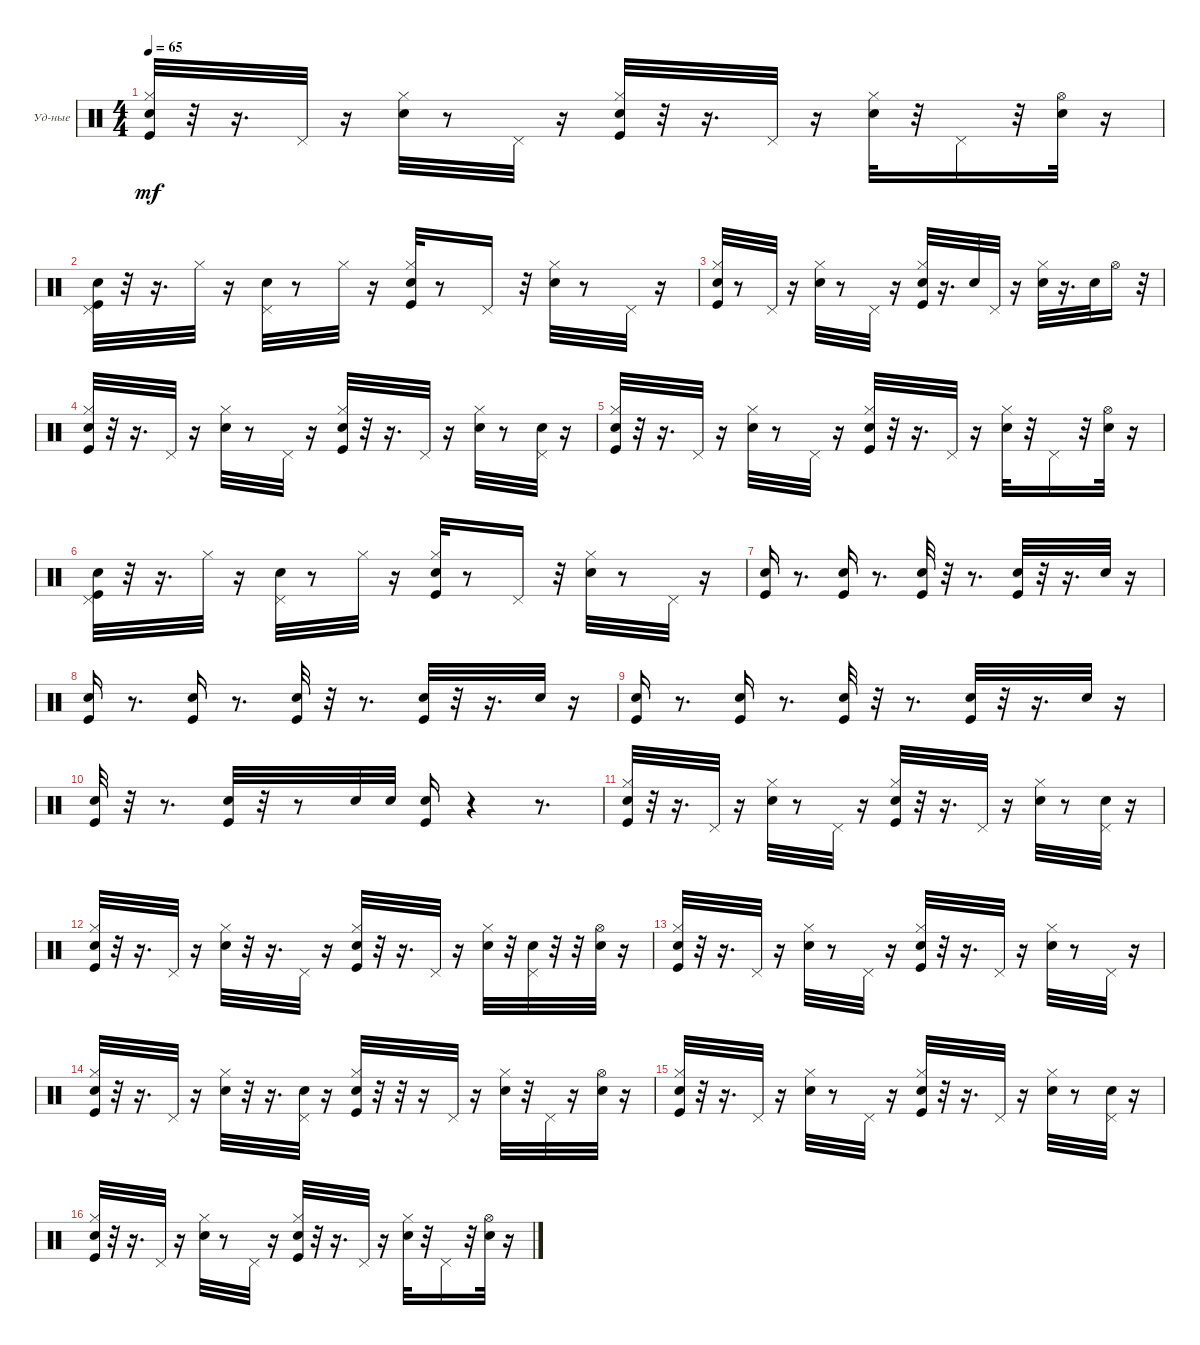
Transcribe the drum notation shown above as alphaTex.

\bracketExtendMode groupsimilarinstruments
\firstSystemTrackNameOrientation horizontal
\otherSystemsTrackNameOrientation horizontal
\track ("Ударные" "Уд-ные") {instrument percussion}
\staff {score}
\articulation defaults
\ts (4 4)
\tempo 65
\clef neutral
\ks c
("Kick (hit)" "Hi-Hat (closed)" "Snare (hit) 2").32{dy mf} r.32 r.16{d} "Pedal Hi-Hat (hit)".32 r.16 ("Hi-Hat (closed)" "Snare (hit) 2").32 r.8 "Pedal Hi-Hat (hit)".32 r.16 ("Kick (hit)" "Hi-Hat (closed)" "Snare (hit) 2").32 r.32 r.16{d} "Pedal Hi-Hat (hit)".32 r.16 ("Hi-Hat (closed)" "Snare (hit) 2").32 r.32 "Pedal Hi-Hat (hit)".16 r.32 ("Hi-Hat (open)" "Snare (hit) 2").32 r.16 |
("Kick (hit)" "Pedal Hi-Hat (hit)" "Snare (hit) 2").32 r.32 r.16{d} "Hi-Hat (closed)".32 r.16 ("Pedal Hi-Hat (hit)" "Snare (hit) 2").32 r.8 "Hi-Hat (closed)".32 r.16 ("Hi-Hat (closed)" "Kick (hit)" "Snare (hit) 2").32 r.8 "Pedal Hi-Hat (hit)".16 r.32 ("Hi-Hat (closed)" "Snare (hit) 2").32 r.8 "Pedal Hi-Hat (hit)".32 r.16 |
("Kick (hit)" "Hi-Hat (closed)" "Snare (hit) 2").32 r.8 "Pedal Hi-Hat (hit)".32 r.16 ("Hi-Hat (closed)" "Snare (hit) 2").32 r.8 "Pedal Hi-Hat (hit)".32 r.16 ("Kick (hit)" "Hi-Hat (closed)" "Snare (hit) 2").32 r.16{d} "Snare (hit) 2".32 "Pedal Hi-Hat (hit)".32 r.16 ("Hi-Hat (closed)" "Snare (hit) 2").32 r.16{d} "Snare (hit) 2".32 "Hi-Hat (open)".16 r.32 |
("Kick (hit)" "Hi-Hat (closed)" "Snare (hit) 2").32 r.32 r.16{d} "Pedal Hi-Hat (hit)".32 r.16 ("Hi-Hat (closed)" "Snare (hit) 2").32 r.8 "Pedal Hi-Hat (hit)".32 r.16 ("Hi-Hat (closed)" "Kick (hit)" "Snare (hit) 2").32 r.32 r.16{d} "Pedal Hi-Hat (hit)".32 r.16 ("Hi-Hat (closed)" "Snare (hit) 2").32 r.8 ("Pedal Hi-Hat (hit)" "Snare (hit) 2").32 r.16 |
("Kick (hit)" "Hi-Hat (closed)" "Snare (hit) 2").32 r.32 r.16{d} "Pedal Hi-Hat (hit)".32 r.16 ("Hi-Hat (closed)" "Snare (hit) 2").32 r.8 "Pedal Hi-Hat (hit)".32 r.16 ("Kick (hit)" "Hi-Hat (closed)" "Snare (hit) 2").32 r.32 r.16{d} "Pedal Hi-Hat (hit)".32 r.16 ("Hi-Hat (closed)" "Snare (hit) 2").32 r.32 "Pedal Hi-Hat (hit)".16 r.32 ("Hi-Hat (open)" "Snare (hit) 2").32 r.16 |
("Kick (hit)" "Pedal Hi-Hat (hit)" "Snare (hit) 2").32 r.32 r.16{d} "Hi-Hat (closed)".32 r.16 ("Pedal Hi-Hat (hit)" "Snare (hit) 2").32 r.8 "Hi-Hat (closed)".32 r.16 ("Hi-Hat (closed)" "Kick (hit)" "Snare (hit) 2").32 r.8 "Pedal Hi-Hat (hit)".16 r.32 ("Hi-Hat (closed)" "Snare (hit) 2").32 r.8 "Pedal Hi-Hat (hit)".32 r.16 |
("Kick (hit)" "Snare (hit) 2").16 r.8{d} ("Kick (hit)" "Snare (hit) 2").16 r.8{d} ("Kick (hit)" "Snare (hit) 2").32 r.32 r.8{d} ("Kick (hit)" "Snare (hit) 2").32 r.32 r.16{d} "Snare (hit) 2".32 r.16 |
("Kick (hit)" "Snare (hit) 2").16 r.8{d} ("Kick (hit)" "Snare (hit) 2").16 r.8{d} ("Kick (hit)" "Snare (hit) 2").32 r.32 r.8{d} ("Kick (hit)" "Snare (hit) 2").32 r.32 r.16{d} "Snare (hit) 2".32 r.16 |
("Kick (hit)" "Snare (hit) 2").16 r.8{d} ("Kick (hit)" "Snare (hit) 2").16 r.8{d} ("Kick (hit)" "Snare (hit) 2").32 r.32 r.8{d} ("Kick (hit)" "Snare (hit) 2").32 r.32 r.16{d} "Snare (hit) 2".32 r.16 |
("Kick (hit)" "Snare (hit) 2").32 r.32 r.8{d} ("Kick (hit)" "Snare (hit) 2").32 r.32 r.8 "Snare (hit) 2".32 "Snare (hit) 2".32 ("Kick (hit)" "Snare (hit) 2").16 r.4 r.8{d} |
("Hi-Hat (closed)" "Kick (hit)" "Snare (hit) 2").32 r.32 r.16{d} "Pedal Hi-Hat (hit)".32 r.16 ("Hi-Hat (closed)" "Snare (hit) 2").32 r.8 "Pedal Hi-Hat (hit)".32 r.16 ("Kick (hit)" "Hi-Hat (closed)" "Snare (hit) 2").32 r.32 r.16{d} "Pedal Hi-Hat (hit)".32 r.16 ("Hi-Hat (closed)" "Snare (hit) 2").32 r.8 ("Pedal Hi-Hat (hit)" "Snare (hit) 2").32 r.16 |
("Kick (hit)" "Hi-Hat (closed)" "Snare (hit) 2").32 r.32 r.16{d} "Pedal Hi-Hat (hit)".32 r.16 ("Hi-Hat (closed)" "Snare (hit) 2").32 r.32 r.16{d} "Pedal Hi-Hat (hit)".32 r.16 ("Kick (hit)" "Hi-Hat (closed)" "Snare (hit) 2").32 r.32 r.16{d} "Pedal Hi-Hat (hit)".32 r.16 ("Hi-Hat (closed)" "Snare (hit) 2").32 r.32 ("Pedal Hi-Hat (hit)" "Snare (hit) 2").32 r.32 r.32 ("Hi-Hat (open)" "Snare (hit) 2").32 r.16 |
("Kick (hit)" "Hi-Hat (closed)" "Snare (hit) 2").32 r.32 r.16{d} "Pedal Hi-Hat (hit)".32 r.16 ("Hi-Hat (closed)" "Snare (hit) 2").32 r.8 "Pedal Hi-Hat (hit)".32 r.16 ("Kick (hit)" "Hi-Hat (closed)" "Snare (hit) 2").32 r.32 r.16{d} "Pedal Hi-Hat (hit)".32 r.16 ("Hi-Hat (closed)" "Snare (hit) 2").32 r.8 "Pedal Hi-Hat (hit)".32 r.16 |
("Kick (hit)" "Hi-Hat (closed)" "Snare (hit) 2").32 r.32 r.16{d} "Pedal Hi-Hat (hit)".32 r.16 ("Hi-Hat (closed)" "Snare (hit) 2").32 r.32 r.16{d} ("Pedal Hi-Hat (hit)" "Snare (hit) 2").32 r.16 ("Hi-Hat (closed)" "Kick (hit)" "Snare (hit) 2").32 r.32 r.32 r.16 "Pedal Hi-Hat (hit)".32 r.16 ("Hi-Hat (closed)" "Snare (hit) 2").32 r.32 "Pedal Hi-Hat (hit)".32 r.16 ("Hi-Hat (open)" "Snare (hit) 2").32 r.16 |
("Kick (hit)" "Hi-Hat (closed)" "Snare (hit) 2").32 r.32 r.16{d} "Pedal Hi-Hat (hit)".32 r.16 ("Hi-Hat (closed)" "Snare (hit) 2").32 r.8 "Pedal Hi-Hat (hit)".32 r.16 ("Hi-Hat (closed)" "Kick (hit)" "Snare (hit) 2").32 r.32 r.16{d} "Pedal Hi-Hat (hit)".32 r.16 ("Hi-Hat (closed)" "Snare (hit) 2").32 r.8 ("Pedal Hi-Hat (hit)" "Snare (hit) 2").32 r.16 |
("Kick (hit)" "Hi-Hat (closed)" "Snare (hit) 2").32 r.32 r.16{d} "Pedal Hi-Hat (hit)".32 r.16 ("Hi-Hat (closed)" "Snare (hit) 2").32 r.8 "Pedal Hi-Hat (hit)".32 r.16 ("Kick (hit)" "Hi-Hat (closed)" "Snare (hit) 2").32 r.32 r.16{d} "Pedal Hi-Hat (hit)".32 r.16 ("Hi-Hat (closed)" "Snare (hit) 2").32 r.32 "Pedal Hi-Hat (hit)".16 r.32 ("Hi-Hat (open)" "Snare (hit) 2").32 r.16
